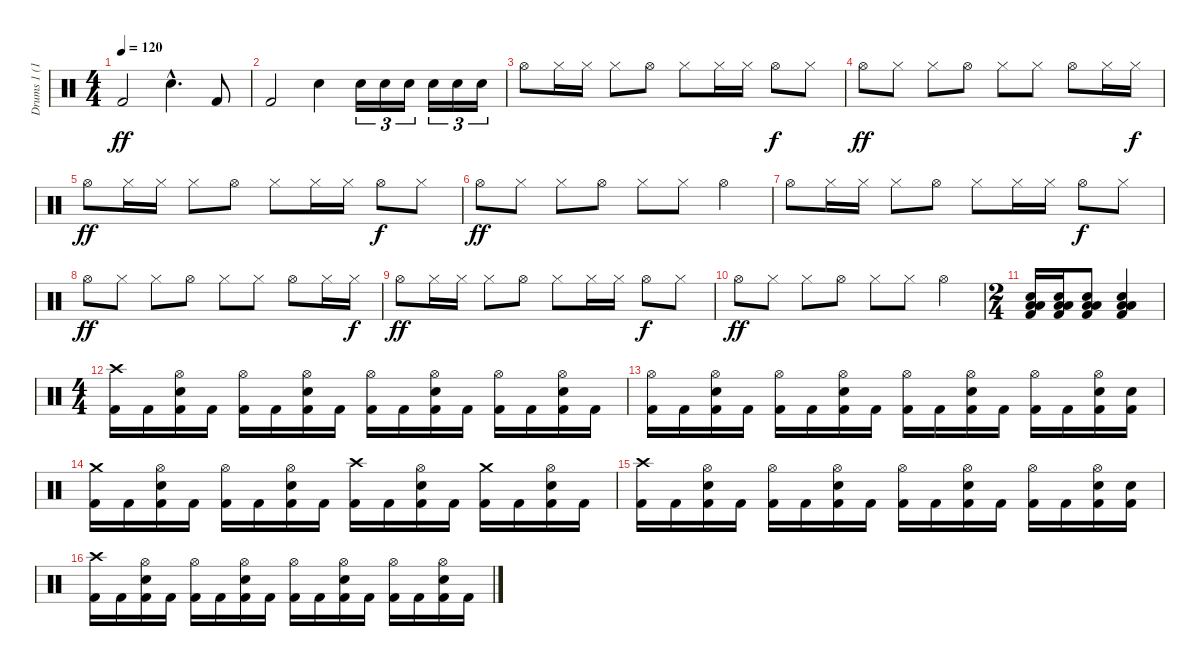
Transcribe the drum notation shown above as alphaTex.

\track ("Drums 1 (16)" "Drums 1 (1") {instrument percussion}
\staff {score}
\articulation defaults
\ts (4 4)
\tempo 120
\clef neutral
\ks c "Kick (hit) 2".2{dy ff} "Snare (hit) 2"{hac}.4{d} "Kick (hit) 2".8
|
"Kick (hit) 2".2 "Snare (hit) 2".4 "Snare (hit) 2".16{tu (3 2)} "Snare (hit) 2".16{tu (3 2)} "Snare (hit) 2".16{tu (3 2)} "Snare (hit) 2".16{tu (3 2)} "Snare (hit) 2".16{tu (3 2)} "Snare (hit) 2".16{tu (3 2)} |
"Hi-Hat (open)".8 "Hi-Hat (closed)".16 "Hi-Hat (closed)".16 "Hi-Hat (closed)".8 "Hi-Hat (open)".8 "Hi-Hat (closed)".8 "Hi-Hat (closed)".16 "Hi-Hat (closed)".16 "Hi-Hat (open)".8{dy f} "Hi-Hat (closed)".8 |
"Hi-Hat (open)".8{dy ff} "Hi-Hat (closed)".8 "Hi-Hat (closed)".8 "Hi-Hat (open)".8 "Hi-Hat (closed)".8 "Hi-Hat (closed)".8 "Hi-Hat (open)".8 "Hi-Hat (closed)".16 "Hi-Hat (closed)".16{dy f} |
"Hi-Hat (open)".8{dy ff} "Hi-Hat (closed)".16 "Hi-Hat (closed)".16 "Hi-Hat (closed)".8 "Hi-Hat (open)".8 "Hi-Hat (closed)".8 "Hi-Hat (closed)".16 "Hi-Hat (closed)".16 "Hi-Hat (open)".8{dy f} "Hi-Hat (closed)".8 |
"Hi-Hat (open)".8{dy ff} "Hi-Hat (closed)".8 "Hi-Hat (closed)".8 "Hi-Hat (open)".8 "Hi-Hat (closed)".8 "Hi-Hat (closed)".8 "Hi-Hat (open)".4 |
"Hi-Hat (open)".8 "Hi-Hat (closed)".16 "Hi-Hat (closed)".16 "Hi-Hat (closed)".8 "Hi-Hat (open)".8 "Hi-Hat (closed)".8 "Hi-Hat (closed)".16 "Hi-Hat (closed)".16 "Hi-Hat (open)".8{dy f} "Hi-Hat (closed)".8 |
"Hi-Hat (open)".8{dy ff} "Hi-Hat (closed)".8 "Hi-Hat (closed)".8 "Hi-Hat (open)".8 "Hi-Hat (closed)".8 "Hi-Hat (closed)".8 "Hi-Hat (open)".8 "Hi-Hat (closed)".16 "Hi-Hat (closed)".16{dy f} |
"Hi-Hat (open)".8{dy ff} "Hi-Hat (closed)".16 "Hi-Hat (closed)".16 "Hi-Hat (closed)".8 "Hi-Hat (open)".8 "Hi-Hat (closed)".8 "Hi-Hat (closed)".16 "Hi-Hat (closed)".16 "Hi-Hat (open)".8{dy f} "Hi-Hat (closed)".8 |
"Hi-Hat (open)".8{dy ff} "Hi-Hat (closed)".8 "Hi-Hat (closed)".8 "Hi-Hat (open)".8 "Hi-Hat (closed)".8 "Hi-Hat (closed)".8 "Hi-Hat (open)".4 |
\ts (2 4)
("Kick (hit) 2" "Snare (hit) 2" "Low Floor Tom (hit)" "Low Tom (hit)").16{balance 8} ("Kick (hit) 2" "Snare (hit) 2" "Low Floor Tom (hit)" "Low Tom (hit)").16 ("Kick (hit) 2" "Snare (hit) 2" "Low Floor Tom (hit)" "Low Tom (hit)").8 ("Kick (hit) 2" "Snare (hit) 2" "Low Floor Tom (hit)" "Low Tom (hit)").4 |
\ts (4 4)
("Kick (hit) 2" "Crash high (hit)").16 "Kick (hit) 2".16 ("Kick (hit) 2" "Snare (hit) 2" "Hi-Hat (open)").16 "Kick (hit) 2".16 ("Kick (hit) 2" "Hi-Hat (open)").16 "Kick (hit) 2".16 ("Kick (hit) 2" "Snare (hit) 2" "Hi-Hat (open)").16 "Kick (hit) 2".16 ("Kick (hit) 2" "Hi-Hat (open)").16 "Kick (hit) 2".16 ("Kick (hit) 2" "Snare (hit) 2" "Hi-Hat (open)").16 "Kick (hit) 2".16 ("Kick (hit) 2" "Hi-Hat (open)").16 "Kick (hit) 2".16 ("Kick (hit) 2" "Snare (hit) 2" "Hi-Hat (open)").16 "Kick (hit) 2".16 |
("Kick (hit) 2" "Hi-Hat (open)").16 "Kick (hit) 2".16 ("Kick (hit) 2" "Snare (hit) 2" "Hi-Hat (open)").16 "Kick (hit) 2".16 ("Kick (hit) 2" "Hi-Hat (open)").16 "Kick (hit) 2".16 ("Kick (hit) 2" "Snare (hit) 2" "Hi-Hat (open)").16 "Kick (hit) 2".16 ("Kick (hit) 2" "Hi-Hat (open)").16 "Kick (hit) 2".16 ("Kick (hit) 2" "Snare (hit) 2" "Hi-Hat (open)").16 "Kick (hit) 2".16 ("Kick (hit) 2" "Hi-Hat (open)").16 "Kick (hit) 2".16 ("Kick (hit) 2" "Snare (hit) 2" "Hi-Hat (open)").16 ("Kick (hit) 2" "Snare (hit) 2").16 |
("Kick (hit) 2" "Crash medium (hit)").16 "Kick (hit) 2".16 ("Kick (hit) 2" "Snare (hit) 2" "Hi-Hat (open)").16 "Kick (hit) 2".16 ("Kick (hit) 2" "Hi-Hat (open)").16 "Kick (hit) 2".16 ("Kick (hit) 2" "Snare (hit) 2" "Hi-Hat (open)").16 "Kick (hit) 2".16 ("Kick (hit) 2" "Crash high (hit)").16 "Kick (hit) 2".16 ("Kick (hit) 2" "Snare (hit) 2" "Hi-Hat (open)").16 "Kick (hit) 2".16 ("Kick (hit) 2" "Crash medium (hit)").16 "Kick (hit) 2".16 ("Kick (hit) 2" "Snare (hit) 2" "Hi-Hat (open)").16 "Kick (hit) 2".16 |
("Kick (hit) 2" "Crash high (hit)").16 "Kick (hit) 2".16 ("Kick (hit) 2" "Snare (hit) 2" "Hi-Hat (open)").16 "Kick (hit) 2".16 ("Kick (hit) 2" "Hi-Hat (open)").16 "Kick (hit) 2".16 ("Kick (hit) 2" "Snare (hit) 2" "Hi-Hat (open)").16 "Kick (hit) 2".16 ("Kick (hit) 2" "Hi-Hat (open)").16 "Kick (hit) 2".16 ("Kick (hit) 2" "Snare (hit) 2" "Hi-Hat (open)").16 "Kick (hit) 2".16 ("Kick (hit) 2" "Hi-Hat (open)").16 "Kick (hit) 2".16 ("Kick (hit) 2" "Snare (hit) 2" "Hi-Hat (open)").16 ("Kick (hit) 2" "Snare (hit) 2").16 |
("Kick (hit) 2" "Crash high (hit)").16 "Kick (hit) 2".16 ("Kick (hit) 2" "Snare (hit) 2" "Hi-Hat (open)").16 "Kick (hit) 2".16 ("Kick (hit) 2" "Hi-Hat (open)").16 "Kick (hit) 2".16 ("Kick (hit) 2" "Snare (hit) 2" "Hi-Hat (open)").16 "Kick (hit) 2".16 ("Kick (hit) 2" "Hi-Hat (open)").16 "Kick (hit) 2".16 ("Kick (hit) 2" "Snare (hit) 2" "Hi-Hat (open)").16 "Kick (hit) 2".16 ("Kick (hit) 2" "Hi-Hat (open)").16 "Kick (hit) 2".16 ("Kick (hit) 2" "Snare (hit) 2" "Hi-Hat (open)").16 "Kick (hit) 2".16
